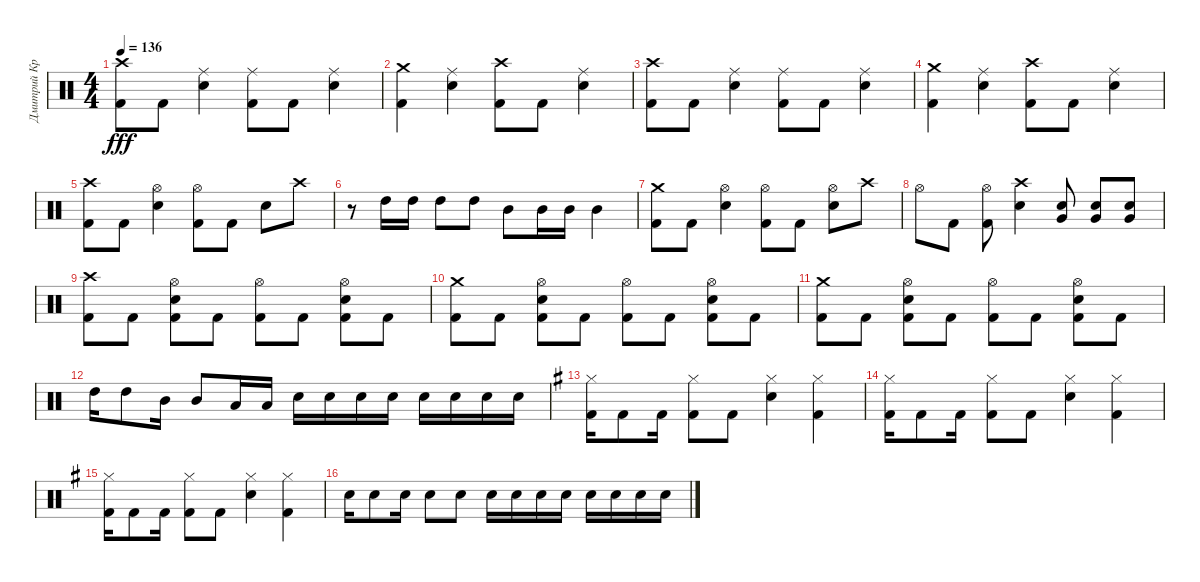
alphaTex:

\track ("Дмитрий Кривенков" "Дмитрий Кр") {instrument percussion}
\staff {score}
\articulation defaults
\ts (4 4)
\tempo 136
\clef neutral
\ks c
("Crash high (hit)" "Kick (hit) 2").8{dy fff} "Kick (hit) 2".8 ("Ride (middle)" "Electric Snare (hit)").4 ("Ride (middle)" "Kick (hit) 2").8 "Kick (hit) 2".8 ("Ride (middle)" "Electric Snare (hit)").4 |
("Crash medium (hit)" "Kick (hit) 2").4 ("Ride (middle)" "Electric Snare (hit)").4 ("Crash high (hit)" "Kick (hit) 2").8 "Kick (hit) 2".8 ("Ride (middle)" "Electric Snare (hit)").4 |
("Crash high (hit)" "Kick (hit) 2").8 "Kick (hit) 2".8 ("Ride (middle)" "Electric Snare (hit)").4 ("Ride (middle)" "Kick (hit) 2").8 "Kick (hit) 2".8 ("Ride (middle)" "Electric Snare (hit)").4 |
("Kick (hit) 2" "Crash medium (hit)").4 ("Electric Snare (hit)" "Ride (middle)").4 ("Kick (hit) 2" "Crash high (hit)").8 "Kick (hit) 2".8 ("Electric Snare (hit)" "Ride (middle)").4 |
("Crash high (hit)" "Kick (hit) 2").8 "Kick (hit) 2".8 ("Hi-Hat (open)" "Electric Snare (hit)").4 ("Hi-Hat (open)" "Kick (hit) 2").8 "Kick (hit) 2".8 "Electric Snare (hit)".8 "Crash high (hit)".8 |
r.8 "High Tom (hit)".16 "High Tom (hit)".16 "High Tom (hit)".8 "High Tom (hit)".8 "Mid Tom (hit)".8 "Mid Tom (hit)".16 "Mid Tom (hit)".16 "Mid Tom (hit)".4 |
("Crash medium (hit)" "Kick (hit) 2").8 "Kick (hit) 2".8 ("Hi-Hat (open)" "Electric Snare (hit)").4 ("Hi-Hat (open)" "Kick (hit) 2").8 "Kick (hit) 2".8 ("Hi-Hat (open)" "Electric Snare (hit)").8 "Crash high (hit)".8 |
"Hi-Hat (open)".8 "Kick (hit) 2".8 ("Hi-Hat (open)" "Kick (hit) 2").8 ("Crash high (hit)" "Electric Snare (hit)").4 ("Very Low Tom (hit)" "Electric Snare (hit)").8 ("Very Low Tom (hit)" "Electric Snare (hit)").8 ("Very Low Tom (hit)" "Electric Snare (hit)").8 |
("Crash high (hit)" "Kick (hit) 2").8 "Kick (hit) 2".8 ("Hi-Hat (open)" "Electric Snare (hit)" "Kick (hit) 2").8 "Kick (hit) 2".8 ("Hi-Hat (open)" "Kick (hit) 2").8 "Kick (hit) 2".8 ("Hi-Hat (open)" "Electric Snare (hit)" "Kick (hit) 2").8 "Kick (hit) 2".8 |
("Crash medium (hit)" "Kick (hit) 2").8 "Kick (hit) 2".8 ("Hi-Hat (open)" "Electric Snare (hit)" "Kick (hit) 2").8 "Kick (hit) 2".8 ("Hi-Hat (open)" "Kick (hit) 2").8 "Kick (hit) 2".8 ("Hi-Hat (open)" "Electric Snare (hit)" "Kick (hit) 2").8 "Kick (hit) 2".8 |
("Crash medium (hit)" "Kick (hit) 2").8 "Kick (hit) 2".8 ("Hi-Hat (open)" "Electric Snare (hit)" "Kick (hit) 2").8 "Kick (hit) 2".8 ("Hi-Hat (open)" "Kick (hit) 2").8 "Kick (hit) 2".8 ("Hi-Hat (open)" "Electric Snare (hit)" "Kick (hit) 2").8 "Kick (hit) 2".8 |
"High Tom (hit)".16 "High Tom (hit)".8 "Mid Tom (hit)".16 "Mid Tom (hit)".8 "Low Tom (hit)".16 "Low Tom (hit)".16 "Electric Snare (hit)".16 "Electric Snare (hit)".16 "Electric Snare (hit)".16 "Electric Snare (hit)".16 "Electric Snare (hit)".16 "Electric Snare (hit)".16 "Electric Snare (hit)".16 "Electric Snare (hit)".16 |
\ks g
("Hi-Hat (closed)" "Kick (hit) 2").16 "Kick (hit) 2".8 "Kick (hit) 2".16 ("Hi-Hat (closed)" "Kick (hit) 2").8 "Kick (hit) 2".8 ("Hi-Hat (closed)" "Electric Snare (hit)").4 ("Hi-Hat (closed)" "Kick (hit) 2").4 |
("Hi-Hat (closed)" "Kick (hit) 2").16 "Kick (hit) 2".8 "Kick (hit) 2".16 ("Hi-Hat (closed)" "Kick (hit) 2").8 "Kick (hit) 2".8 ("Hi-Hat (closed)" "Electric Snare (hit)").4 ("Hi-Hat (closed)" "Kick (hit) 2").4 |
("Hi-Hat (closed)" "Kick (hit) 2").16 "Kick (hit) 2".8 "Kick (hit) 2".16 ("Hi-Hat (closed)" "Kick (hit) 2").8 "Kick (hit) 2".8 ("Hi-Hat (closed)" "Electric Snare (hit)").4 ("Hi-Hat (closed)" "Kick (hit) 2").4 |
"Electric Snare (hit)".16 "Electric Snare (hit)".8 "Electric Snare (hit)".16 "Electric Snare (hit)".8 "Electric Snare (hit)".8 "Electric Snare (hit)".16 "Electric Snare (hit)".16 "Electric Snare (hit)".16 "Electric Snare (hit)".16 "Electric Snare (hit)".16 "Electric Snare (hit)".16 "Electric Snare (hit)".16 "Electric Snare (hit)".16
